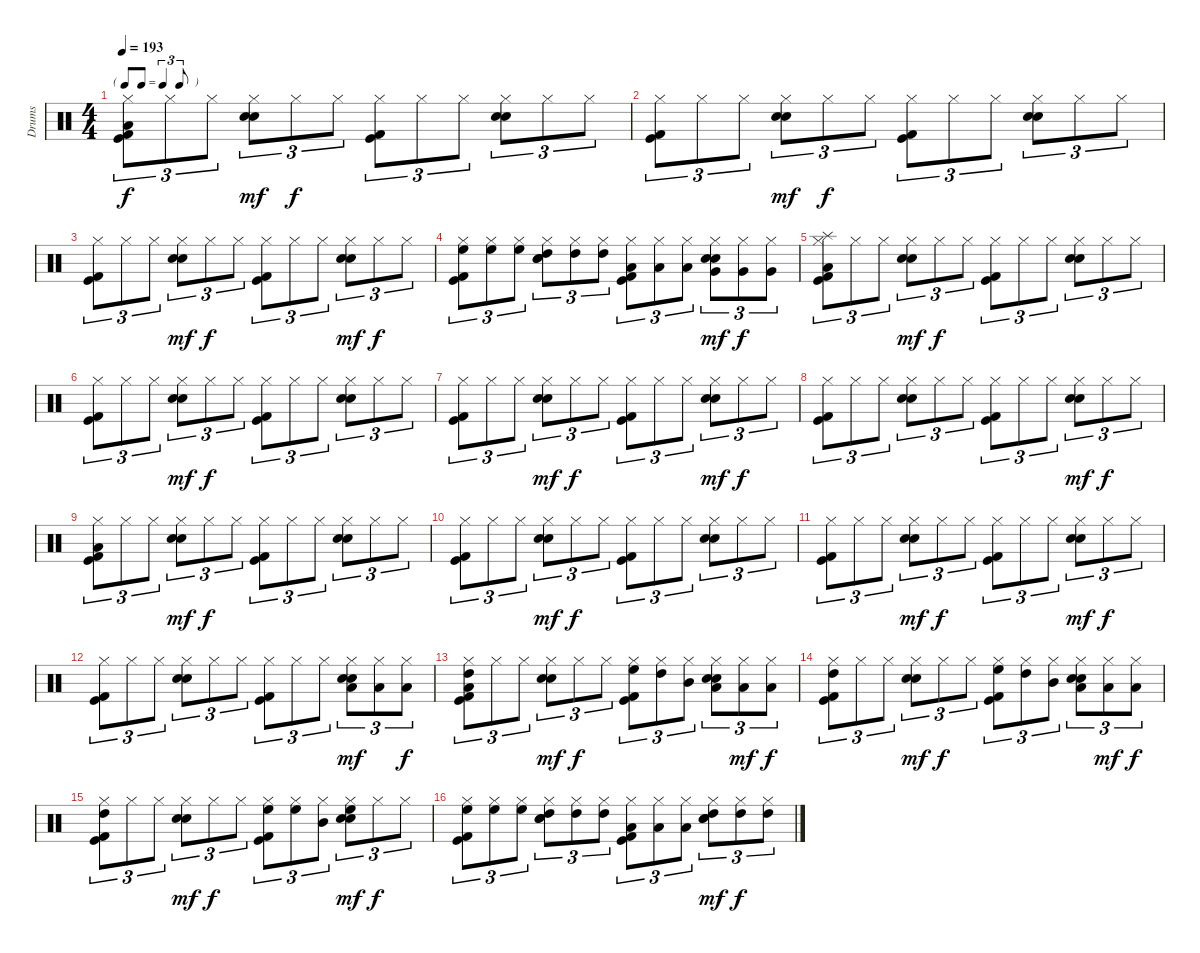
\track ("Drums" "Drums") {instrument percussion}
\staff {score}
\articulation defaults
\ts (4 4)
\tf triplet8th
\tempo 193
\clef neutral
\ks c
("Hi-Hat (closed)" "Kick (hit) 2" "Kick (hit)" "Low Floor Tom (hit)").8{tu (3 2) dy f} "Hi-Hat (closed)".8{tu (3 2)} "Hi-Hat (closed)".8{tu (3 2)} ("Hi-Hat (closed)" "Electric Snare (hit)" "Snare (hit) 2").8{tu (3 2) dy mf} "Hi-Hat (closed)".8{tu (3 2) dy f} "Hi-Hat (closed)".8{tu (3 2)} ("Hi-Hat (closed)" "Kick (hit) 2" "Kick (hit)").8{tu (3 2)} "Hi-Hat (closed)".8{tu (3 2)} "Hi-Hat (closed)".8{tu (3 2)} ("Hi-Hat (closed)" "Snare (hit) 2" "Electric Snare (hit)").8{tu (3 2)} "Hi-Hat (closed)".8{tu (3 2)} "Hi-Hat (closed)".8{tu (3 2)} |
("Kick (hit)" "Kick (hit) 2" "Hi-Hat (closed)").8{tu (3 2)} "Hi-Hat (closed)".8{tu (3 2)} "Hi-Hat (closed)".8{tu (3 2)} ("Snare (hit) 2" "Electric Snare (hit)" "Hi-Hat (closed)").8{tu (3 2) dy mf} "Hi-Hat (closed)".8{tu (3 2) dy f} "Hi-Hat (closed)".8{tu (3 2)} ("Kick (hit)" "Kick (hit) 2" "Hi-Hat (closed)").8{tu (3 2)} "Hi-Hat (closed)".8{tu (3 2)} "Hi-Hat (closed)".8{tu (3 2)} ("Snare (hit) 2" "Electric Snare (hit)" "Hi-Hat (closed)").8{tu (3 2)} "Hi-Hat (closed)".8{tu (3 2)} "Hi-Hat (closed)".8{tu (3 2)} |
("Kick (hit) 2" "Kick (hit)" "Hi-Hat (closed)").8{tu (3 2)} "Hi-Hat (closed)".8{tu (3 2)} "Hi-Hat (closed)".8{tu (3 2)} ("Snare (hit) 2" "Electric Snare (hit)" "Hi-Hat (closed)").8{tu (3 2) dy mf} "Hi-Hat (closed)".8{tu (3 2) dy f} "Hi-Hat (closed)".8{tu (3 2)} ("Kick (hit)" "Kick (hit) 2" "Hi-Hat (closed)").8{tu (3 2)} "Hi-Hat (closed)".8{tu (3 2)} "Hi-Hat (closed)".8{tu (3 2)} ("Hi-Hat (closed)" "Electric Snare (hit)" "Snare (hit) 2").8{tu (3 2) dy mf} "Hi-Hat (closed)".8{tu (3 2) dy f} "Hi-Hat (closed)".8{tu (3 2)} |
("High Floor Tom (hit)" "Hi-Hat (closed)" "Kick (hit) 2" "Kick (hit)").8{tu (3 2)} ("High Floor Tom (hit)" "Hi-Hat (closed)").8{tu (3 2)} ("High Floor Tom (hit)" "Hi-Hat (closed)").8{tu (3 2)} ("High Tom (hit)" "Hi-Hat (closed)" "Snare (hit) 2" "Electric Snare (hit)").8{tu (3 2)} ("High Tom (hit)" "Hi-Hat (closed)").8{tu (3 2)} ("High Tom (hit)" "Hi-Hat (closed)").8{tu (3 2)} ("Low Tom (hit)" "Kick (hit)" "Kick (hit) 2" "Hi-Hat (closed)").8{tu (3 2)} ("Low Tom (hit)" "Hi-Hat (closed)").8{tu (3 2)} ("Low Tom (hit)" "Hi-Hat (closed)").8{tu (3 2)} ("Hi-Hat (closed)" "Very Low Tom (hit)" "Snare (hit) 2" "Electric Snare (hit)").8{tu (3 2) dy mf} ("Very Low Tom (hit)" "Hi-Hat (closed)").8{tu (3 2) dy f} ("Very Low Tom (hit)" "Hi-Hat (closed)").8{tu (3 2)} |
("Splash (hit)" "Hi-Hat (closed)" "Kick (hit) 2" "Kick (hit)" "Low Floor Tom (hit)").8{tu (3 2)} "Hi-Hat (closed)".8{tu (3 2)} "Hi-Hat (closed)".8{tu (3 2)} ("Hi-Hat (closed)" "Electric Snare (hit)" "Snare (hit) 2").8{tu (3 2) dy mf} "Hi-Hat (closed)".8{tu (3 2) dy f} "Hi-Hat (closed)".8{tu (3 2)} ("Hi-Hat (closed)" "Kick (hit) 2" "Kick (hit)").8{tu (3 2)} "Hi-Hat (closed)".8{tu (3 2)} "Hi-Hat (closed)".8{tu (3 2)} ("Hi-Hat (closed)" "Snare (hit) 2" "Electric Snare (hit)").8{tu (3 2)} "Hi-Hat (closed)".8{tu (3 2)} "Hi-Hat (closed)".8{tu (3 2)} |
("Kick (hit)" "Kick (hit) 2" "Hi-Hat (closed)").8{tu (3 2)} "Hi-Hat (closed)".8{tu (3 2)} "Hi-Hat (closed)".8{tu (3 2)} ("Snare (hit) 2" "Electric Snare (hit)" "Hi-Hat (closed)").8{tu (3 2) dy mf} "Hi-Hat (closed)".8{tu (3 2) dy f} "Hi-Hat (closed)".8{tu (3 2)} ("Kick (hit)" "Kick (hit) 2" "Hi-Hat (closed)").8{tu (3 2)} "Hi-Hat (closed)".8{tu (3 2)} "Hi-Hat (closed)".8{tu (3 2)} ("Snare (hit) 2" "Electric Snare (hit)" "Hi-Hat (closed)").8{tu (3 2)} "Hi-Hat (closed)".8{tu (3 2)} "Hi-Hat (closed)".8{tu (3 2)} |
("Kick (hit) 2" "Kick (hit)" "Hi-Hat (closed)").8{tu (3 2)} "Hi-Hat (closed)".8{tu (3 2)} "Hi-Hat (closed)".8{tu (3 2)} ("Snare (hit) 2" "Electric Snare (hit)" "Hi-Hat (closed)").8{tu (3 2) dy mf} "Hi-Hat (closed)".8{tu (3 2) dy f} "Hi-Hat (closed)".8{tu (3 2)} ("Kick (hit)" "Kick (hit) 2" "Hi-Hat (closed)").8{tu (3 2)} "Hi-Hat (closed)".8{tu (3 2)} "Hi-Hat (closed)".8{tu (3 2)} ("Hi-Hat (closed)" "Electric Snare (hit)" "Snare (hit) 2").8{tu (3 2) dy mf} "Hi-Hat (closed)".8{tu (3 2) dy f} "Hi-Hat (closed)".8{tu (3 2)} |
("Hi-Hat (closed)" "Kick (hit) 2" "Kick (hit)").8{tu (3 2)} "Hi-Hat (closed)".8{tu (3 2)} "Hi-Hat (closed)".8{tu (3 2)} ("Hi-Hat (closed)" "Snare (hit) 2" "Electric Snare (hit)").8{tu (3 2)} "Hi-Hat (closed)".8{tu (3 2)} "Hi-Hat (closed)".8{tu (3 2)} ("Kick (hit)" "Kick (hit) 2" "Hi-Hat (closed)").8{tu (3 2)} "Hi-Hat (closed)".8{tu (3 2)} "Hi-Hat (closed)".8{tu (3 2)} ("Hi-Hat (closed)" "Snare (hit) 2" "Electric Snare (hit)").8{tu (3 2) dy mf} "Hi-Hat (closed)".8{tu (3 2) dy f} "Hi-Hat (closed)".8{tu (3 2)} |
("Hi-Hat (closed)" "Kick (hit) 2" "Kick (hit)" "Low Floor Tom (hit)").8{tu (3 2)} "Hi-Hat (closed)".8{tu (3 2)} "Hi-Hat (closed)".8{tu (3 2)} ("Hi-Hat (closed)" "Electric Snare (hit)" "Snare (hit) 2").8{tu (3 2) dy mf} "Hi-Hat (closed)".8{tu (3 2) dy f} "Hi-Hat (closed)".8{tu (3 2)} ("Hi-Hat (closed)" "Kick (hit) 2" "Kick (hit)").8{tu (3 2)} "Hi-Hat (closed)".8{tu (3 2)} "Hi-Hat (closed)".8{tu (3 2)} ("Hi-Hat (closed)" "Snare (hit) 2" "Electric Snare (hit)").8{tu (3 2)} "Hi-Hat (closed)".8{tu (3 2)} "Hi-Hat (closed)".8{tu (3 2)} |
("Kick (hit)" "Kick (hit) 2" "Hi-Hat (closed)").8{tu (3 2)} "Hi-Hat (closed)".8{tu (3 2)} "Hi-Hat (closed)".8{tu (3 2)} ("Snare (hit) 2" "Electric Snare (hit)" "Hi-Hat (closed)").8{tu (3 2) dy mf} "Hi-Hat (closed)".8{tu (3 2) dy f} "Hi-Hat (closed)".8{tu (3 2)} ("Kick (hit)" "Kick (hit) 2" "Hi-Hat (closed)").8{tu (3 2)} "Hi-Hat (closed)".8{tu (3 2)} "Hi-Hat (closed)".8{tu (3 2)} ("Snare (hit) 2" "Electric Snare (hit)" "Hi-Hat (closed)").8{tu (3 2)} "Hi-Hat (closed)".8{tu (3 2)} "Hi-Hat (closed)".8{tu (3 2)} |
("Kick (hit) 2" "Kick (hit)" "Hi-Hat (closed)").8{tu (3 2)} "Hi-Hat (closed)".8{tu (3 2)} "Hi-Hat (closed)".8{tu (3 2)} ("Snare (hit) 2" "Electric Snare (hit)" "Hi-Hat (closed)").8{tu (3 2) dy mf} "Hi-Hat (closed)".8{tu (3 2) dy f} "Hi-Hat (closed)".8{tu (3 2)} ("Kick (hit)" "Kick (hit) 2" "Hi-Hat (closed)").8{tu (3 2)} "Hi-Hat (closed)".8{tu (3 2)} "Hi-Hat (closed)".8{tu (3 2)} ("Hi-Hat (closed)" "Electric Snare (hit)" "Snare (hit) 2").8{tu (3 2) dy mf} "Hi-Hat (closed)".8{tu (3 2) dy f} "Hi-Hat (closed)".8{tu (3 2)} |
("Hi-Hat (closed)" "Kick (hit) 2" "Kick (hit)").8{tu (3 2)} "Hi-Hat (closed)".8{tu (3 2)} "Hi-Hat (closed)".8{tu (3 2)} ("Hi-Hat (closed)" "Snare (hit) 2" "Electric Snare (hit)").8{tu (3 2)} "Hi-Hat (closed)".8{tu (3 2)} "Hi-Hat (closed)".8{tu (3 2)} ("Kick (hit)" "Kick (hit) 2" "Hi-Hat (closed)").8{tu (3 2)} "Hi-Hat (closed)".8{tu (3 2)} "Hi-Hat (closed)".8{tu (3 2)} ("Low Tom (hit)" "Hi-Hat (closed)" "Snare (hit) 2" "Electric Snare (hit)").8{tu (3 2) dy mf} ("Low Tom (hit)" "Hi-Hat (closed)").8{tu (3 2)} ("Low Tom (hit)" "Hi-Hat (closed)").8{tu (3 2) dy f} |
("High Tom (hit)" "Hi-Hat (closed)" "Kick (hit) 2" "Kick (hit)" "Low Floor Tom (hit)").8{tu (3 2)} "Hi-Hat (closed)".8{tu (3 2)} "Hi-Hat (closed)".8{tu (3 2)} ("Hi-Hat (closed)" "Electric Snare (hit)" "Snare (hit) 2").8{tu (3 2) dy mf} "Hi-Hat (closed)".8{tu (3 2) dy f} "Hi-Hat (closed)".8{tu (3 2)} ("High Floor Tom (hit)" "Hi-Hat (closed)" "Kick (hit) 2" "Kick (hit)").8{tu (3 2)} ("High Tom (hit)" "Hi-Hat (closed)").8{tu (3 2)} ("Mid Tom (hit)" "Hi-Hat (closed)").8{tu (3 2)} ("Low Tom (hit)" "Hi-Hat (closed)" "Snare (hit) 2" "Electric Snare (hit)").8{tu (3 2)} ("Low Tom (hit)" "Hi-Hat (closed)").8{tu (3 2) dy mf} ("Low Tom (hit)" "Hi-Hat (closed)").8{tu (3 2) dy f} |
("High Tom (hit)" "Kick (hit)" "Kick (hit) 2" "Hi-Hat (closed)").8{tu (3 2)} "Hi-Hat (closed)".8{tu (3 2)} "Hi-Hat (closed)".8{tu (3 2)} ("Snare (hit) 2" "Electric Snare (hit)" "Hi-Hat (closed)").8{tu (3 2) dy mf} "Hi-Hat (closed)".8{tu (3 2) dy f} "Hi-Hat (closed)".8{tu (3 2)} ("High Floor Tom (hit)" "Kick (hit)" "Kick (hit) 2" "Hi-Hat (closed)").8{tu (3 2)} ("High Tom (hit)" "Hi-Hat (closed)").8{tu (3 2)} ("Mid Tom (hit)" "Hi-Hat (closed)").8{tu (3 2)} ("Low Tom (hit)" "Snare (hit) 2" "Electric Snare (hit)" "Hi-Hat (closed)").8{tu (3 2)} ("Low Tom (hit)" "Hi-Hat (closed)").8{tu (3 2) dy mf} ("Low Tom (hit)" "Hi-Hat (closed)").8{tu (3 2) dy f} |
("High Tom (hit)" "Kick (hit) 2" "Kick (hit)" "Hi-Hat (closed)").8{tu (3 2)} "Hi-Hat (closed)".8{tu (3 2)} "Hi-Hat (closed)".8{tu (3 2)} ("Snare (hit) 2" "Electric Snare (hit)" "Hi-Hat (closed)").8{tu (3 2) dy mf} "Hi-Hat (closed)".8{tu (3 2) dy f} "Hi-Hat (closed)".8{tu (3 2)} ("High Floor Tom (hit)" "Kick (hit)" "Kick (hit) 2" "Hi-Hat (closed)").8{tu (3 2)} ("High Floor Tom (hit)" "Hi-Hat (closed)").8{tu (3 2)} ("Mid Tom (hit)" "Hi-Hat (closed)").8{tu (3 2)} ("High Floor Tom (hit)" "Hi-Hat (closed)" "Electric Snare (hit)" "Snare (hit) 2").8{tu (3 2) dy mf} "Hi-Hat (closed)".8{tu (3 2) dy f} "Hi-Hat (closed)".8{tu (3 2)} |
("High Floor Tom (hit)" "Hi-Hat (closed)" "Kick (hit) 2" "Kick (hit)").8{tu (3 2)} ("High Floor Tom (hit)" "Hi-Hat (closed)").8{tu (3 2)} ("High Floor Tom (hit)" "Hi-Hat (closed)").8{tu (3 2)} ("High Tom (hit)" "Hi-Hat (closed)" "Snare (hit) 2" "Electric Snare (hit)").8{tu (3 2)} ("High Tom (hit)" "Hi-Hat (closed)").8{tu (3 2)} ("High Tom (hit)" "Hi-Hat (closed)").8{tu (3 2)} ("Low Tom (hit)" "Kick (hit)" "Kick (hit) 2" "Hi-Hat (closed)").8{tu (3 2)} ("Low Tom (hit)" "Hi-Hat (closed)").8{tu (3 2)} ("Low Tom (hit)" "Hi-Hat (closed)").8{tu (3 2)} ("High Tom (hit)" "Hi-Hat (closed)" "Snare (hit) 2" "Electric Snare (hit)").8{tu (3 2) dy mf} ("High Tom (hit)" "Hi-Hat (closed)").8{tu (3 2) dy f} ("High Tom (hit)" "Hi-Hat (closed)").8{tu (3 2)}
